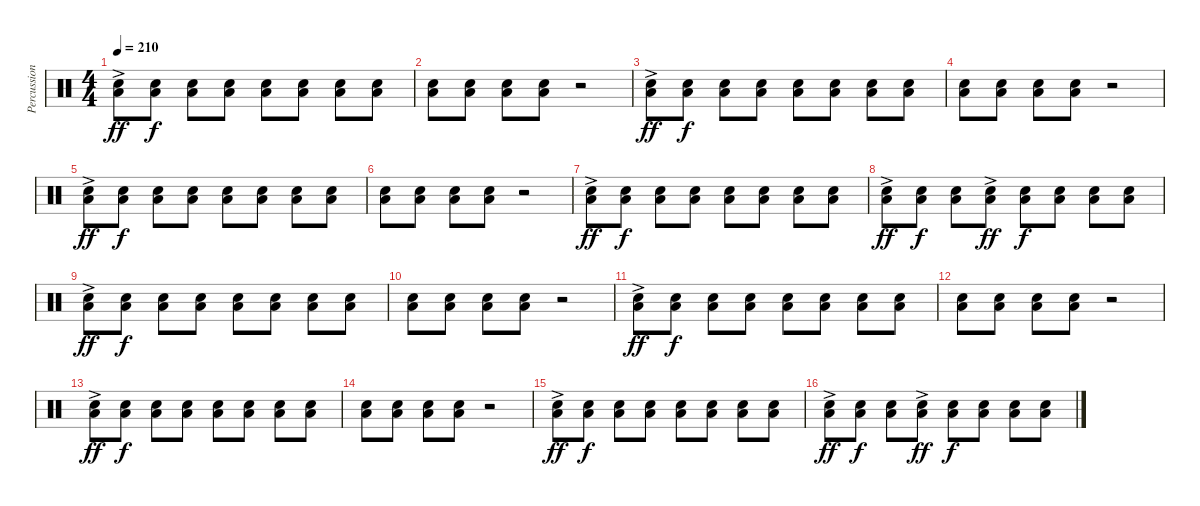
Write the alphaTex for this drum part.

\track ("Percussion" "Percussion") {instrument percussion}
\staff {score}
\articulation defaults
\ts (4 4)
\tempo 210
\clef neutral
\ks c
("Electric Snare (hit)"{ac} "Low Floor Tom (hit)"{ac}).8{dy ff volume 12} ("Electric Snare (hit)" "Low Floor Tom (hit)").8{dy f} ("Electric Snare (hit)" "Low Floor Tom (hit)").8 ("Electric Snare (hit)" "Low Floor Tom (hit)").8 ("Electric Snare (hit)" "Low Floor Tom (hit)").8 ("Electric Snare (hit)" "Low Floor Tom (hit)").8 ("Electric Snare (hit)" "Low Floor Tom (hit)").8 ("Electric Snare (hit)" "Low Floor Tom (hit)").8 |
("Electric Snare (hit)" "Low Floor Tom (hit)").8 ("Electric Snare (hit)" "Low Floor Tom (hit)").8 ("Electric Snare (hit)" "Low Floor Tom (hit)").8 ("Electric Snare (hit)" "Low Floor Tom (hit)").8 r.2 |
("Electric Snare (hit)"{ac} "Low Floor Tom (hit)"{ac}).8{dy ff} ("Electric Snare (hit)" "Low Floor Tom (hit)").8{dy f} ("Electric Snare (hit)" "Low Floor Tom (hit)").8 ("Electric Snare (hit)" "Low Floor Tom (hit)").8 ("Electric Snare (hit)" "Low Floor Tom (hit)").8 ("Electric Snare (hit)" "Low Floor Tom (hit)").8 ("Electric Snare (hit)" "Low Floor Tom (hit)").8 ("Electric Snare (hit)" "Low Floor Tom (hit)").8 |
("Electric Snare (hit)" "Low Floor Tom (hit)").8 ("Electric Snare (hit)" "Low Floor Tom (hit)").8 ("Electric Snare (hit)" "Low Floor Tom (hit)").8 ("Electric Snare (hit)" "Low Floor Tom (hit)").8 r.2 |
("Electric Snare (hit)"{ac} "Low Floor Tom (hit)"{ac}).8{dy ff} ("Electric Snare (hit)" "Low Floor Tom (hit)").8{dy f} ("Electric Snare (hit)" "Low Floor Tom (hit)").8 ("Electric Snare (hit)" "Low Floor Tom (hit)").8 ("Electric Snare (hit)" "Low Floor Tom (hit)").8 ("Electric Snare (hit)" "Low Floor Tom (hit)").8 ("Electric Snare (hit)" "Low Floor Tom (hit)").8 ("Electric Snare (hit)" "Low Floor Tom (hit)").8 |
("Electric Snare (hit)" "Low Floor Tom (hit)").8 ("Electric Snare (hit)" "Low Floor Tom (hit)").8 ("Electric Snare (hit)" "Low Floor Tom (hit)").8 ("Electric Snare (hit)" "Low Floor Tom (hit)").8 r.2 |
("Electric Snare (hit)"{ac} "Low Floor Tom (hit)"{ac}).8{dy ff} ("Electric Snare (hit)" "Low Floor Tom (hit)").8{dy f} ("Electric Snare (hit)" "Low Floor Tom (hit)").8 ("Electric Snare (hit)" "Low Floor Tom (hit)").8 ("Electric Snare (hit)" "Low Floor Tom (hit)").8 ("Electric Snare (hit)" "Low Floor Tom (hit)").8 ("Electric Snare (hit)" "Low Floor Tom (hit)").8 ("Electric Snare (hit)" "Low Floor Tom (hit)").8 |
("Electric Snare (hit)"{ac} "Low Floor Tom (hit)"{ac}).8{dy ff} ("Electric Snare (hit)" "Low Floor Tom (hit)").8{dy f} ("Electric Snare (hit)" "Low Floor Tom (hit)").8 ("Electric Snare (hit)"{ac} "Low Floor Tom (hit)"{ac}).8{dy ff} ("Electric Snare (hit)" "Low Floor Tom (hit)").8{dy f} ("Electric Snare (hit)" "Low Floor Tom (hit)").8 ("Electric Snare (hit)" "Low Floor Tom (hit)").8 ("Electric Snare (hit)" "Low Floor Tom (hit)").8 |
("Electric Snare (hit)"{ac} "Low Floor Tom (hit)"{ac}).8{dy ff} ("Electric Snare (hit)" "Low Floor Tom (hit)").8{dy f} ("Electric Snare (hit)" "Low Floor Tom (hit)").8 ("Electric Snare (hit)" "Low Floor Tom (hit)").8 ("Electric Snare (hit)" "Low Floor Tom (hit)").8 ("Electric Snare (hit)" "Low Floor Tom (hit)").8 ("Electric Snare (hit)" "Low Floor Tom (hit)").8 ("Electric Snare (hit)" "Low Floor Tom (hit)").8 |
("Electric Snare (hit)" "Low Floor Tom (hit)").8 ("Electric Snare (hit)" "Low Floor Tom (hit)").8 ("Electric Snare (hit)" "Low Floor Tom (hit)").8 ("Electric Snare (hit)" "Low Floor Tom (hit)").8 r.2 |
("Electric Snare (hit)"{ac} "Low Floor Tom (hit)"{ac}).8{dy ff} ("Electric Snare (hit)" "Low Floor Tom (hit)").8{dy f} ("Electric Snare (hit)" "Low Floor Tom (hit)").8 ("Electric Snare (hit)" "Low Floor Tom (hit)").8 ("Electric Snare (hit)" "Low Floor Tom (hit)").8 ("Electric Snare (hit)" "Low Floor Tom (hit)").8 ("Electric Snare (hit)" "Low Floor Tom (hit)").8 ("Electric Snare (hit)" "Low Floor Tom (hit)").8 |
("Electric Snare (hit)" "Low Floor Tom (hit)").8 ("Electric Snare (hit)" "Low Floor Tom (hit)").8 ("Electric Snare (hit)" "Low Floor Tom (hit)").8 ("Electric Snare (hit)" "Low Floor Tom (hit)").8 r.2 |
("Electric Snare (hit)"{ac} "Low Floor Tom (hit)"{ac}).8{dy ff} ("Electric Snare (hit)" "Low Floor Tom (hit)").8{dy f} ("Electric Snare (hit)" "Low Floor Tom (hit)").8 ("Electric Snare (hit)" "Low Floor Tom (hit)").8 ("Electric Snare (hit)" "Low Floor Tom (hit)").8 ("Electric Snare (hit)" "Low Floor Tom (hit)").8 ("Electric Snare (hit)" "Low Floor Tom (hit)").8 ("Electric Snare (hit)" "Low Floor Tom (hit)").8 |
("Electric Snare (hit)" "Low Floor Tom (hit)").8 ("Electric Snare (hit)" "Low Floor Tom (hit)").8 ("Electric Snare (hit)" "Low Floor Tom (hit)").8 ("Electric Snare (hit)" "Low Floor Tom (hit)").8 r.2 |
("Electric Snare (hit)"{ac} "Low Floor Tom (hit)"{ac}).8{dy ff} ("Electric Snare (hit)" "Low Floor Tom (hit)").8{dy f} ("Electric Snare (hit)" "Low Floor Tom (hit)").8 ("Electric Snare (hit)" "Low Floor Tom (hit)").8 ("Electric Snare (hit)" "Low Floor Tom (hit)").8 ("Electric Snare (hit)" "Low Floor Tom (hit)").8 ("Electric Snare (hit)" "Low Floor Tom (hit)").8 ("Electric Snare (hit)" "Low Floor Tom (hit)").8 |
("Electric Snare (hit)"{ac} "Low Floor Tom (hit)"{ac}).8{dy ff} ("Electric Snare (hit)" "Low Floor Tom (hit)").8{dy f} ("Electric Snare (hit)" "Low Floor Tom (hit)").8 ("Electric Snare (hit)"{ac} "Low Floor Tom (hit)"{ac}).8{dy ff} ("Electric Snare (hit)" "Low Floor Tom (hit)").8{dy f} ("Electric Snare (hit)" "Low Floor Tom (hit)").8 ("Electric Snare (hit)" "Low Floor Tom (hit)").8 ("Electric Snare (hit)" "Low Floor Tom (hit)").8
